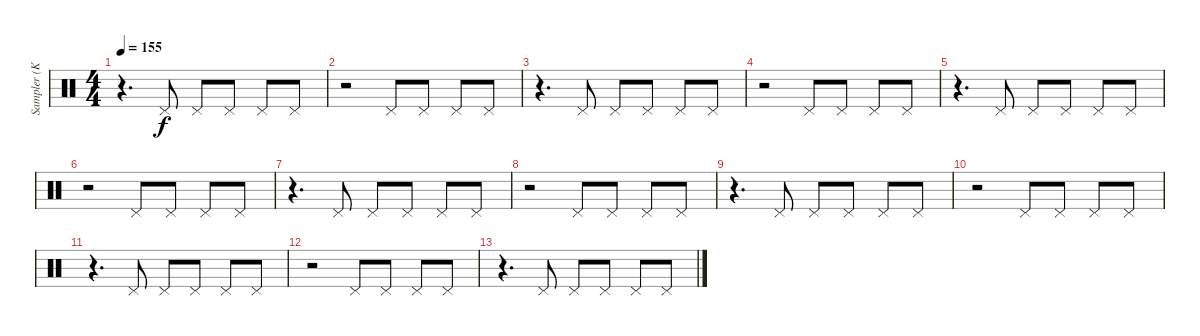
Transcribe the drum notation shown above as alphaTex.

\track ("Sampler (Korg Radias)" "Sampler (K") {instrument percussion}
\staff {score}
\articulation defaults
\ts (4 4)
\tempo 155
\clef neutral
\ks c
r.4{d dy f} "Pedal Hi-Hat (hit)".8 "Pedal Hi-Hat (hit)".8 "Pedal Hi-Hat (hit)".8 "Pedal Hi-Hat (hit)".8 "Pedal Hi-Hat (hit)".8 |
r.2 "Pedal Hi-Hat (hit)".8 "Pedal Hi-Hat (hit)".8 "Pedal Hi-Hat (hit)".8 "Pedal Hi-Hat (hit)".8 |
r.4{d} "Pedal Hi-Hat (hit)".8 "Pedal Hi-Hat (hit)".8 "Pedal Hi-Hat (hit)".8 "Pedal Hi-Hat (hit)".8 "Pedal Hi-Hat (hit)".8 |
r.2 "Pedal Hi-Hat (hit)".8 "Pedal Hi-Hat (hit)".8 "Pedal Hi-Hat (hit)".8 "Pedal Hi-Hat (hit)".8 |
r.4{d} "Pedal Hi-Hat (hit)".8 "Pedal Hi-Hat (hit)".8 "Pedal Hi-Hat (hit)".8 "Pedal Hi-Hat (hit)".8 "Pedal Hi-Hat (hit)".8 |
r.2 "Pedal Hi-Hat (hit)".8 "Pedal Hi-Hat (hit)".8 "Pedal Hi-Hat (hit)".8 "Pedal Hi-Hat (hit)".8 |
r.4{d} "Pedal Hi-Hat (hit)".8 "Pedal Hi-Hat (hit)".8 "Pedal Hi-Hat (hit)".8 "Pedal Hi-Hat (hit)".8 "Pedal Hi-Hat (hit)".8 |
r.2 "Pedal Hi-Hat (hit)".8 "Pedal Hi-Hat (hit)".8 "Pedal Hi-Hat (hit)".8 "Pedal Hi-Hat (hit)".8 |
r.4{d} "Pedal Hi-Hat (hit)".8 "Pedal Hi-Hat (hit)".8 "Pedal Hi-Hat (hit)".8 "Pedal Hi-Hat (hit)".8 "Pedal Hi-Hat (hit)".8 |
r.2 "Pedal Hi-Hat (hit)".8 "Pedal Hi-Hat (hit)".8 "Pedal Hi-Hat (hit)".8 "Pedal Hi-Hat (hit)".8 |
r.4{d} "Pedal Hi-Hat (hit)".8 "Pedal Hi-Hat (hit)".8 "Pedal Hi-Hat (hit)".8 "Pedal Hi-Hat (hit)".8 "Pedal Hi-Hat (hit)".8 |
r.2 "Pedal Hi-Hat (hit)".8 "Pedal Hi-Hat (hit)".8 "Pedal Hi-Hat (hit)".8 "Pedal Hi-Hat (hit)".8 |
r.4{d} "Pedal Hi-Hat (hit)".8 "Pedal Hi-Hat (hit)".8 "Pedal Hi-Hat (hit)".8 "Pedal Hi-Hat (hit)".8 "Pedal Hi-Hat (hit)".8
